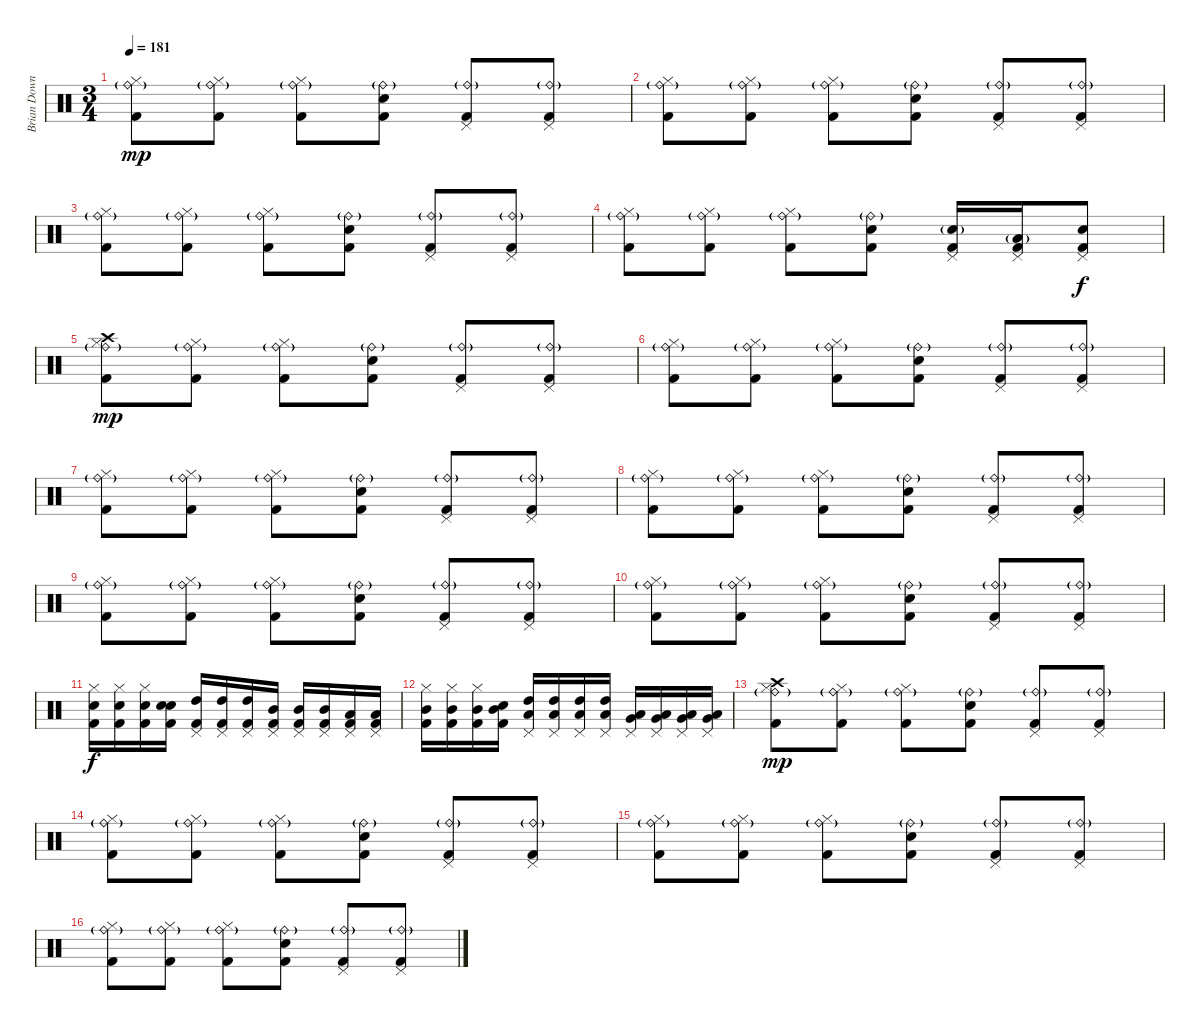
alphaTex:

\track ("Brian Downey" "Brian Down") {instrument percussion}
\staff {score}
\articulation defaults
\ts (3 4)
\tempo 181
\clef neutral
\ks c
("Ride (bell)"{g} "Hi-Hat (closed)" "Kick (hit) 2").8{dy mp} ("Ride (bell)"{g} "Hi-Hat (closed)" "Kick (hit) 2").8 ("Ride (bell)"{g} "Hi-Hat (closed)" "Kick (hit) 2").8 ("Ride (bell)"{g} "Snare (hit) 2" "Kick (hit) 2").8 ("Ride (bell)"{g} "Pedal Hi-Hat (hit)" "Kick (hit) 2").8 ("Ride (bell)"{g} "Pedal Hi-Hat (hit)" "Kick (hit) 2").8 |
("Ride (bell)"{g} "Hi-Hat (closed)" "Kick (hit) 2").8 ("Ride (bell)"{g} "Hi-Hat (closed)" "Kick (hit) 2").8 ("Ride (bell)"{g} "Hi-Hat (closed)" "Kick (hit) 2").8 ("Ride (bell)"{g} "Snare (hit) 2" "Kick (hit) 2").8 ("Ride (bell)"{g} "Pedal Hi-Hat (hit)" "Kick (hit) 2").8 ("Ride (bell)"{g} "Pedal Hi-Hat (hit)" "Kick (hit) 2").8 |
("Ride (bell)"{g} "Hi-Hat (closed)" "Kick (hit) 2").8 ("Ride (bell)"{g} "Hi-Hat (closed)" "Kick (hit) 2").8 ("Ride (bell)"{g} "Hi-Hat (closed)" "Kick (hit) 2").8 ("Ride (bell)"{g} "Snare (hit) 2" "Kick (hit) 2").8 ("Ride (bell)"{g} "Pedal Hi-Hat (hit)" "Kick (hit) 2").8 ("Ride (bell)"{g} "Pedal Hi-Hat (hit)" "Kick (hit) 2").8 |
("Ride (bell)"{g} "Hi-Hat (closed)" "Kick (hit) 2").8 ("Ride (bell)"{g} "Hi-Hat (closed)" "Kick (hit) 2").8 ("Ride (bell)"{g} "Hi-Hat (closed)" "Kick (hit) 2").8 ("Ride (bell)"{g} "Snare (hit) 2" "Kick (hit) 2").8 ("Electric Snare (hit)"{g} "Pedal Hi-Hat (hit)" "Kick (hit) 2").16 ("Low Tom (hit)"{g} "Pedal Hi-Hat (hit)" "Kick (hit) 2").16 ("Snare (hit) 2" "Pedal Hi-Hat (hit)" "Kick (hit) 2").8{dy f} |
("Crash high (hit)" "Ride (bell)"{g} "Hi-Hat (closed)" "Kick (hit) 2").8{dy mp} ("Ride (bell)"{g} "Hi-Hat (closed)" "Kick (hit) 2").8 ("Ride (bell)"{g} "Hi-Hat (closed)" "Kick (hit) 2").8 ("Ride (bell)"{g} "Snare (hit) 2" "Kick (hit) 2").8 ("Ride (bell)"{g} "Pedal Hi-Hat (hit)" "Kick (hit) 2").8 ("Ride (bell)"{g} "Pedal Hi-Hat (hit)" "Kick (hit) 2").8 |
("Ride (bell)"{g} "Hi-Hat (closed)" "Kick (hit) 2").8 ("Ride (bell)"{g} "Hi-Hat (closed)" "Kick (hit) 2").8 ("Ride (bell)"{g} "Hi-Hat (closed)" "Kick (hit) 2").8 ("Ride (bell)"{g} "Snare (hit) 2" "Kick (hit) 2").8 ("Ride (bell)"{g} "Pedal Hi-Hat (hit)" "Kick (hit) 2").8 ("Ride (bell)"{g} "Pedal Hi-Hat (hit)" "Kick (hit) 2").8 |
("Ride (bell)"{g} "Hi-Hat (closed)" "Kick (hit) 2").8 ("Ride (bell)"{g} "Hi-Hat (closed)" "Kick (hit) 2").8 ("Ride (bell)"{g} "Hi-Hat (closed)" "Kick (hit) 2").8 ("Ride (bell)"{g} "Snare (hit) 2" "Kick (hit) 2").8 ("Ride (bell)"{g} "Pedal Hi-Hat (hit)" "Kick (hit) 2").8 ("Ride (bell)"{g} "Pedal Hi-Hat (hit)" "Kick (hit) 2").8 |
("Ride (bell)"{g} "Hi-Hat (closed)" "Kick (hit) 2").8 ("Ride (bell)"{g} "Hi-Hat (closed)" "Kick (hit) 2").8 ("Ride (bell)"{g} "Hi-Hat (closed)" "Kick (hit) 2").8 ("Ride (bell)"{g} "Snare (hit) 2" "Kick (hit) 2").8 ("Ride (bell)"{g} "Pedal Hi-Hat (hit)" "Kick (hit) 2").8 ("Ride (bell)"{g} "Pedal Hi-Hat (hit)" "Kick (hit) 2").8 |
("Ride (bell)"{g} "Hi-Hat (closed)" "Kick (hit) 2").8 ("Ride (bell)"{g} "Hi-Hat (closed)" "Kick (hit) 2").8 ("Ride (bell)"{g} "Hi-Hat (closed)" "Kick (hit) 2").8 ("Ride (bell)"{g} "Snare (hit) 2" "Kick (hit) 2").8 ("Ride (bell)"{g} "Pedal Hi-Hat (hit)" "Kick (hit) 2").8 ("Ride (bell)"{g} "Pedal Hi-Hat (hit)" "Kick (hit) 2").8 |
("Ride (bell)"{g} "Hi-Hat (closed)" "Kick (hit) 2").8 ("Ride (bell)"{g} "Hi-Hat (closed)" "Kick (hit) 2").8 ("Ride (bell)"{g} "Hi-Hat (closed)" "Kick (hit) 2").8 ("Ride (bell)"{g} "Snare (hit) 2" "Kick (hit) 2").8 ("Ride (bell)"{g} "Pedal Hi-Hat (hit)" "Kick (hit) 2").8 ("Ride (bell)"{g} "Pedal Hi-Hat (hit)" "Kick (hit) 2").8 |
("Electric Snare (hit)" "Hi-Hat (closed)" "Kick (hit) 2").16{dy f} ("Electric Snare (hit)" "Hi-Hat (closed)" "Kick (hit) 2").16 ("Electric Snare (hit)" "Hi-Hat (closed)" "Kick (hit) 2").16 ("Electric Snare (hit)" "Snare (hit) 2" "Kick (hit) 2").16 ("High Tom (hit)" "Pedal Hi-Hat (hit)" "Kick (hit) 2").16 ("High Tom (hit)" "Pedal Hi-Hat (hit)" "Kick (hit) 2").16 ("High Tom (hit)" "Pedal Hi-Hat (hit)" "Kick (hit) 2").16 ("Mid Tom (hit)" "Pedal Hi-Hat (hit)" "Kick (hit) 2").16 ("Mid Tom (hit)" "Pedal Hi-Hat (hit)" "Kick (hit) 2").16 ("Mid Tom (hit)" "Pedal Hi-Hat (hit)" "Kick (hit) 2").16 ("Low Tom (hit)" "Pedal Hi-Hat (hit)" "Kick (hit) 2").16 ("Low Tom (hit)" "Pedal Hi-Hat (hit)" "Kick (hit) 2").16 |
("Mid Tom (hit)" "Hi-Hat (closed)" "Kick (hit) 2").16 ("Mid Tom (hit)" "Hi-Hat (closed)" "Kick (hit) 2").16 ("Mid Tom (hit)" "Hi-Hat (closed)" "Kick (hit) 2").16 ("Mid Tom (hit)" "Snare (hit) 2" "Kick (hit) 2").16 ("Low Tom (hit)" "Pedal Hi-Hat (hit)" "High Tom (hit)").16 ("Low Tom (hit)" "Pedal Hi-Hat (hit)" "High Tom (hit)").16 ("Low Tom (hit)" "Pedal Hi-Hat (hit)" "High Tom (hit)").16 ("Low Tom (hit)" "Pedal Hi-Hat (hit)" "High Tom (hit)").16 ("Very Low Tom (hit)" "Pedal Hi-Hat (hit)" "Low Tom (hit)").16 ("Very Low Tom (hit)" "Pedal Hi-Hat (hit)" "Low Tom (hit)").16 ("Very Low Tom (hit)" "Pedal Hi-Hat (hit)" "Low Tom (hit)").16 ("Very Low Tom (hit)" "Pedal Hi-Hat (hit)" "Low Tom (hit)").16 |
("Crash high (hit)" "Ride (bell)"{g} "Hi-Hat (closed)" "Kick (hit) 2").8{dy mp} ("Ride (bell)"{g} "Hi-Hat (closed)" "Kick (hit) 2").8 ("Ride (bell)"{g} "Hi-Hat (closed)" "Kick (hit) 2").8 ("Ride (bell)"{g} "Snare (hit) 2" "Kick (hit) 2").8 ("Ride (bell)"{g} "Pedal Hi-Hat (hit)" "Kick (hit) 2").8 ("Ride (bell)"{g} "Pedal Hi-Hat (hit)" "Kick (hit) 2").8 |
("Ride (bell)"{g} "Hi-Hat (closed)" "Kick (hit) 2").8 ("Ride (bell)"{g} "Hi-Hat (closed)" "Kick (hit) 2").8 ("Ride (bell)"{g} "Hi-Hat (closed)" "Kick (hit) 2").8 ("Ride (bell)"{g} "Snare (hit) 2" "Kick (hit) 2").8 ("Ride (bell)"{g} "Pedal Hi-Hat (hit)" "Kick (hit) 2").8 ("Ride (bell)"{g} "Pedal Hi-Hat (hit)" "Kick (hit) 2").8 |
("Ride (bell)"{g} "Hi-Hat (closed)" "Kick (hit) 2").8 ("Ride (bell)"{g} "Hi-Hat (closed)" "Kick (hit) 2").8 ("Ride (bell)"{g} "Hi-Hat (closed)" "Kick (hit) 2").8 ("Ride (bell)"{g} "Snare (hit) 2" "Kick (hit) 2").8 ("Ride (bell)"{g} "Pedal Hi-Hat (hit)" "Kick (hit) 2").8 ("Ride (bell)"{g} "Pedal Hi-Hat (hit)" "Kick (hit) 2").8 |
("Ride (bell)"{g} "Hi-Hat (closed)" "Kick (hit) 2").8 ("Ride (bell)"{g} "Hi-Hat (closed)" "Kick (hit) 2").8 ("Ride (bell)"{g} "Hi-Hat (closed)" "Kick (hit) 2").8 ("Ride (bell)"{g} "Snare (hit) 2" "Kick (hit) 2").8 ("Ride (bell)"{g} "Pedal Hi-Hat (hit)" "Kick (hit) 2").8 ("Ride (bell)"{g} "Pedal Hi-Hat (hit)" "Kick (hit) 2").8
